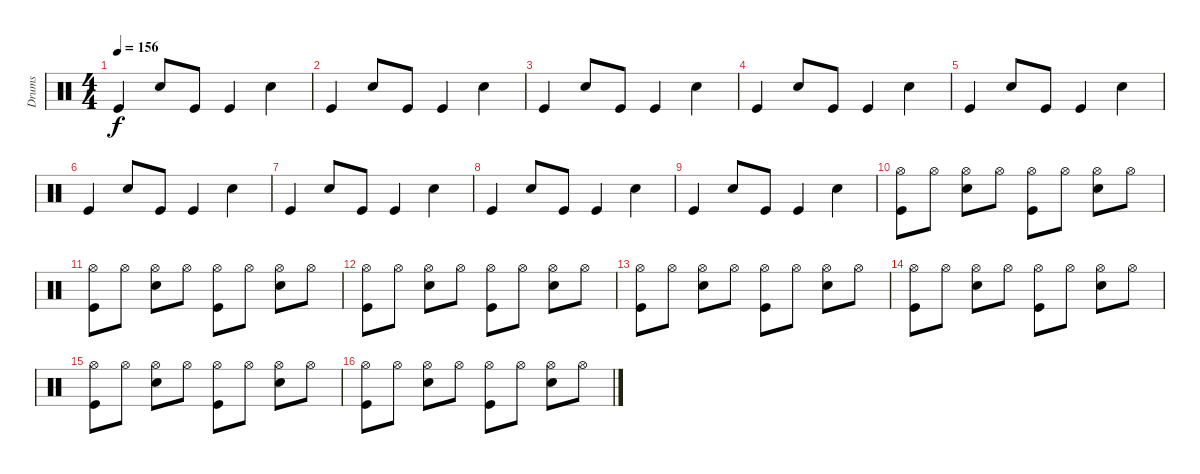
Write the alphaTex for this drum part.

\track ("Drums" "Drums") {instrument percussion}
\staff {score}
\articulation defaults
\ts (4 4)
\tempo 156
\clef neutral
\ks c "Kick (hit)".4{dy f} "Snare (hit) 2".8 "Kick (hit)".8 "Kick (hit)".4 "Snare (hit) 2".4
|
"Kick (hit)".4 "Snare (hit) 2".8 "Kick (hit)".8 "Kick (hit)".4 "Snare (hit) 2".4 |
"Kick (hit)".4 "Snare (hit) 2".8 "Kick (hit)".8 "Kick (hit)".4 "Snare (hit) 2".4 |
"Kick (hit)".4 "Snare (hit) 2".8 "Kick (hit)".8 "Kick (hit)".4 "Snare (hit) 2".4 |
"Kick (hit)".4 "Snare (hit) 2".8 "Kick (hit)".8 "Kick (hit)".4 "Snare (hit) 2".4 |
"Kick (hit)".4 "Snare (hit) 2".8 "Kick (hit)".8 "Kick (hit)".4 "Snare (hit) 2".4 |
"Kick (hit)".4 "Snare (hit) 2".8 "Kick (hit)".8 "Kick (hit)".4 "Snare (hit) 2".4 |
"Kick (hit)".4 "Snare (hit) 2".8 "Kick (hit)".8 "Kick (hit)".4 "Snare (hit) 2".4 |
"Kick (hit)".4 "Snare (hit) 2".8 "Kick (hit)".8 "Kick (hit)".4 "Snare (hit) 2".4 |
("Hi-Hat (open)" "Kick (hit)").8 "Hi-Hat (open)".8 ("Hi-Hat (open)" "Electric Snare (hit)").8 "Hi-Hat (open)".8 ("Hi-Hat (open)" "Kick (hit)").8 "Hi-Hat (open)".8 ("Hi-Hat (open)" "Electric Snare (hit)").8 "Hi-Hat (open)".8 |
("Hi-Hat (open)" "Kick (hit)").8 "Hi-Hat (open)".8 ("Hi-Hat (open)" "Electric Snare (hit)").8 "Hi-Hat (open)".8 ("Hi-Hat (open)" "Kick (hit)").8 "Hi-Hat (open)".8 ("Hi-Hat (open)" "Electric Snare (hit)").8 "Hi-Hat (open)".8 |
("Hi-Hat (open)" "Kick (hit)").8 "Hi-Hat (open)".8 ("Hi-Hat (open)" "Electric Snare (hit)").8 "Hi-Hat (open)".8 ("Hi-Hat (open)" "Kick (hit)").8 "Hi-Hat (open)".8 ("Hi-Hat (open)" "Electric Snare (hit)").8 "Hi-Hat (open)".8 |
("Hi-Hat (open)" "Kick (hit)").8 "Hi-Hat (open)".8 ("Hi-Hat (open)" "Electric Snare (hit)").8 "Hi-Hat (open)".8 ("Hi-Hat (open)" "Kick (hit)").8 "Hi-Hat (open)".8 ("Hi-Hat (open)" "Electric Snare (hit)").8 "Hi-Hat (open)".8 |
("Hi-Hat (open)" "Kick (hit)").8 "Hi-Hat (open)".8 ("Hi-Hat (open)" "Electric Snare (hit)").8 "Hi-Hat (open)".8 ("Hi-Hat (open)" "Kick (hit)").8 "Hi-Hat (open)".8 ("Hi-Hat (open)" "Electric Snare (hit)").8 "Hi-Hat (open)".8 |
("Hi-Hat (open)" "Kick (hit)").8 "Hi-Hat (open)".8 ("Hi-Hat (open)" "Electric Snare (hit)").8 "Hi-Hat (open)".8 ("Hi-Hat (open)" "Kick (hit)").8 "Hi-Hat (open)".8 ("Hi-Hat (open)" "Electric Snare (hit)").8 "Hi-Hat (open)".8 |
("Hi-Hat (open)" "Kick (hit)").8 "Hi-Hat (open)".8 ("Hi-Hat (open)" "Electric Snare (hit)").8 "Hi-Hat (open)".8 ("Hi-Hat (open)" "Kick (hit)").8 "Hi-Hat (open)".8 ("Hi-Hat (open)" "Electric Snare (hit)").8 "Hi-Hat (open)".8
